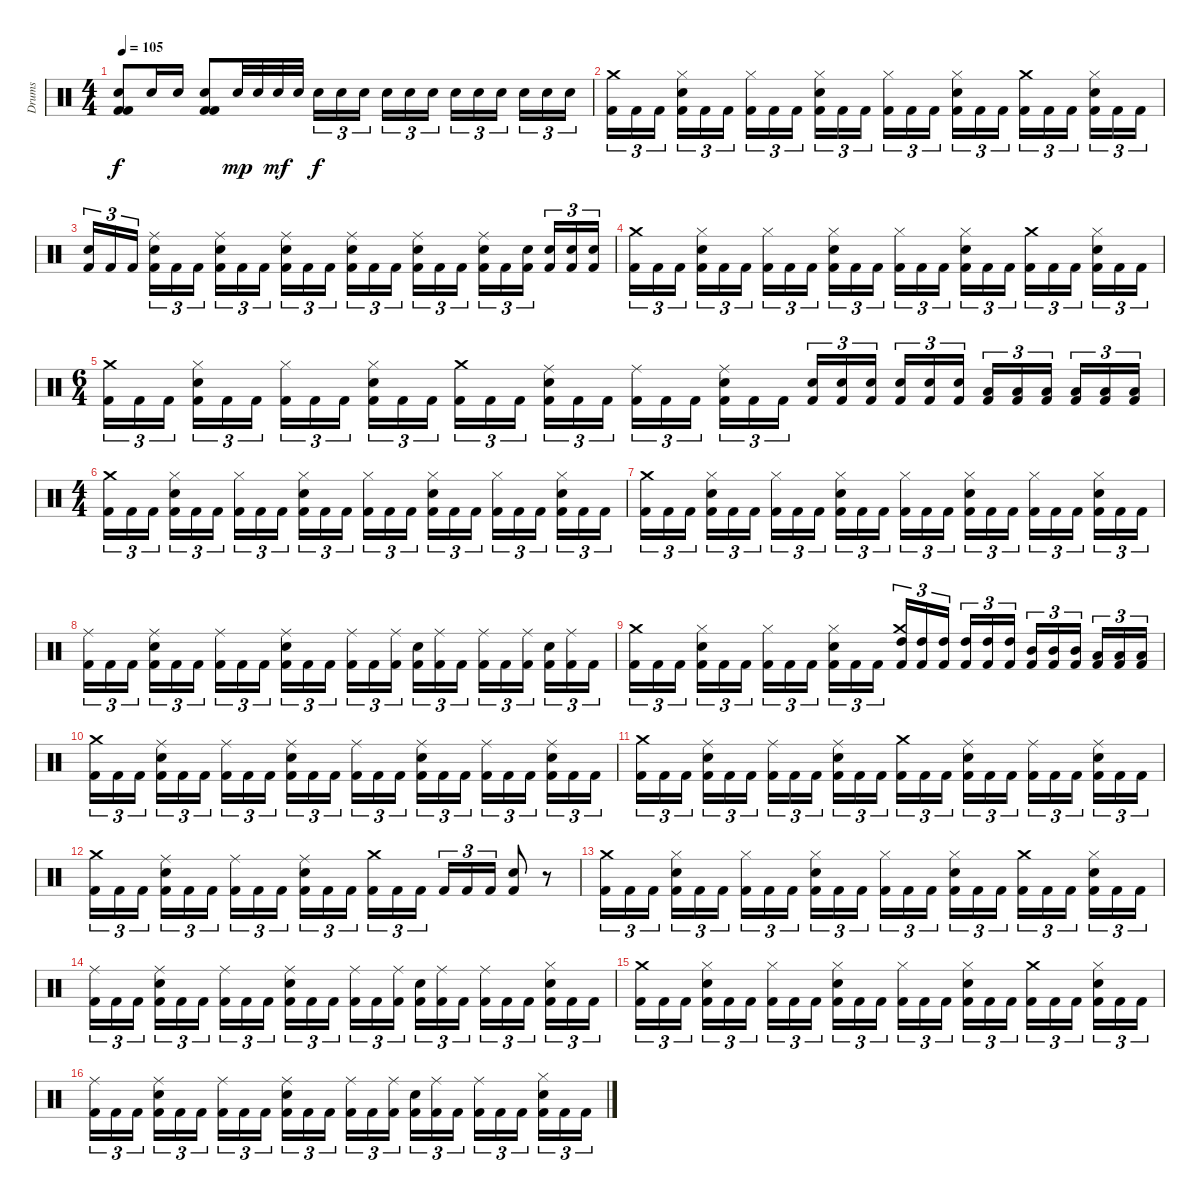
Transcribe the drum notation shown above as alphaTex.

\track ("Drums" "Drums") {instrument percussion}
\staff {score}
\articulation defaults
\ts (4 4)
\tempo 105
\clef neutral
\ks c
("Snare (hit) 2" "Kick (hit) 2" "Kick (hit) 2").8{dy f} "Snare (hit) 2".16 "Snare (hit) 2".16 ("Snare (hit) 2" "Kick (hit) 2" "Kick (hit) 2").8 "Snare (hit) 2".32{dy mp} "Snare (hit) 2".32 "Snare (hit) 2".32{dy mf} "Snare (hit) 2".32 "Electric Snare (hit)".16{tu (3 2) dy f} "Electric Snare (hit)".16{tu (3 2)} "Electric Snare (hit)".16{tu (3 2)} "Electric Snare (hit)".16{tu (3 2)} "Electric Snare (hit)".16{tu (3 2)} "Electric Snare (hit)".16{tu (3 2)} "Electric Snare (hit)".16{tu (3 2)} "Electric Snare (hit)".16{tu (3 2)} "Electric Snare (hit)".16{tu (3 2)} "Electric Snare (hit)".16{tu (3 2)} "Electric Snare (hit)".16{tu (3 2)} "Electric Snare (hit)".16{tu (3 2)} |
("Crash medium (hit)" "Kick (hit) 2").16{tu (3 2)} "Kick (hit) 2".16{tu (3 2)} "Kick (hit) 2".16{tu (3 2)} ("Hi-Hat (closed)" "Electric Snare (hit)" "Kick (hit) 2").16{tu (3 2)} "Kick (hit) 2".16{tu (3 2)} "Kick (hit) 2".16{tu (3 2)} ("Hi-Hat (closed)" "Kick (hit) 2").16{tu (3 2)} "Kick (hit) 2".16{tu (3 2)} "Kick (hit) 2".16{tu (3 2)} ("Hi-Hat (closed)" "Electric Snare (hit)" "Kick (hit) 2").16{tu (3 2)} "Kick (hit) 2".16{tu (3 2)} "Kick (hit) 2".16{tu (3 2)} ("Hi-Hat (closed)" "Kick (hit) 2").16{tu (3 2)} "Kick (hit) 2".16{tu (3 2)} "Kick (hit) 2".16{tu (3 2)} ("Hi-Hat (closed)" "Electric Snare (hit)" "Kick (hit) 2").16{tu (3 2)} "Kick (hit) 2".16{tu (3 2)} "Kick (hit) 2".16{tu (3 2)} ("Crash medium (hit)" "Kick (hit) 2").16{tu (3 2)} "Kick (hit) 2".16{tu (3 2)} "Kick (hit) 2".16{tu (3 2)} ("Hi-Hat (closed)" "Electric Snare (hit)" "Kick (hit) 2").16{tu (3 2)} "Kick (hit) 2".16{tu (3 2)} "Kick (hit) 2".16{tu (3 2)} |
("Electric Snare (hit)" "Kick (hit) 2").16{tu (3 2)} "Kick (hit) 2".16{tu (3 2)} "Kick (hit) 2".16{tu (3 2)} ("Ride (middle)" "Electric Snare (hit)" "Kick (hit) 2").16{tu (3 2)} "Kick (hit) 2".16{tu (3 2)} "Kick (hit) 2".16{tu (3 2)} ("Ride (middle)" "Electric Snare (hit)" "Kick (hit) 2").16{tu (3 2)} "Kick (hit) 2".16{tu (3 2)} "Kick (hit) 2".16{tu (3 2)} ("Ride (middle)" "Electric Snare (hit)" "Kick (hit) 2").16{tu (3 2)} "Kick (hit) 2".16{tu (3 2)} "Kick (hit) 2".16{tu (3 2)} ("Ride (middle)" "Electric Snare (hit)" "Kick (hit) 2").16{tu (3 2)} "Kick (hit) 2".16{tu (3 2)} "Kick (hit) 2".16{tu (3 2)} ("Ride (middle)" "Electric Snare (hit)" "Kick (hit) 2").16{tu (3 2)} "Kick (hit) 2".16{tu (3 2)} "Kick (hit) 2".16{tu (3 2)} ("Ride (middle)" "Electric Snare (hit)" "Kick (hit) 2").16{tu (3 2)} "Kick (hit) 2".16{tu (3 2)} ("Electric Snare (hit)" "Kick (hit) 2").16{tu (3 2)} ("Electric Snare (hit)" "Kick (hit) 2").16{tu (3 2)} ("Electric Snare (hit)" "Kick (hit) 2").16{tu (3 2)} ("Electric Snare (hit)" "Kick (hit) 2").16{tu (3 2)} |
("Crash medium (hit)" "Kick (hit) 2").16{tu (3 2)} "Kick (hit) 2".16{tu (3 2)} "Kick (hit) 2".16{tu (3 2)} ("Hi-Hat (closed)" "Electric Snare (hit)" "Kick (hit) 2").16{tu (3 2)} "Kick (hit) 2".16{tu (3 2)} "Kick (hit) 2".16{tu (3 2)} ("Hi-Hat (closed)" "Kick (hit) 2").16{tu (3 2)} "Kick (hit) 2".16{tu (3 2)} "Kick (hit) 2".16{tu (3 2)} ("Hi-Hat (closed)" "Electric Snare (hit)" "Kick (hit) 2").16{tu (3 2)} "Kick (hit) 2".16{tu (3 2)} "Kick (hit) 2".16{tu (3 2)} ("Hi-Hat (closed)" "Kick (hit) 2").16{tu (3 2)} "Kick (hit) 2".16{tu (3 2)} "Kick (hit) 2".16{tu (3 2)} ("Hi-Hat (closed)" "Electric Snare (hit)" "Kick (hit) 2").16{tu (3 2)} "Kick (hit) 2".16{tu (3 2)} "Kick (hit) 2".16{tu (3 2)} ("Crash medium (hit)" "Kick (hit) 2").16{tu (3 2)} "Kick (hit) 2".16{tu (3 2)} "Kick (hit) 2".16{tu (3 2)} ("Hi-Hat (closed)" "Electric Snare (hit)" "Kick (hit) 2").16{tu (3 2)} "Kick (hit) 2".16{tu (3 2)} "Kick (hit) 2".16{tu (3 2)} |
\ts (6 4)
("Crash medium (hit)" "Kick (hit) 2").16{tu (3 2)} "Kick (hit) 2".16{tu (3 2)} "Kick (hit) 2".16{tu (3 2)} ("Hi-Hat (closed)" "Electric Snare (hit)" "Kick (hit) 2").16{tu (3 2)} "Kick (hit) 2".16{tu (3 2)} "Kick (hit) 2".16{tu (3 2)} ("Hi-Hat (closed)" "Kick (hit) 2").16{tu (3 2)} "Kick (hit) 2".16{tu (3 2)} "Kick (hit) 2".16{tu (3 2)} ("Hi-Hat (closed)" "Electric Snare (hit)" "Kick (hit) 2").16{tu (3 2)} "Kick (hit) 2".16{tu (3 2)} "Kick (hit) 2".16{tu (3 2)} ("Crash medium (hit)" "Kick (hit) 2").16{tu (3 2)} "Kick (hit) 2".16{tu (3 2)} "Kick (hit) 2".16{tu (3 2)} ("Ride (middle)" "Electric Snare (hit)" "Kick (hit) 2").16{tu (3 2)} "Kick (hit) 2".16{tu (3 2)} "Kick (hit) 2".16{tu (3 2)} ("Ride (middle)" "Kick (hit) 2").16{tu (3 2)} "Kick (hit) 2".16{tu (3 2)} "Kick (hit) 2".16{tu (3 2)} ("Ride (middle)" "Electric Snare (hit)" "Kick (hit) 2").16{tu (3 2)} "Kick (hit) 2".16{tu (3 2)} "Kick (hit) 2".16{tu (3 2)} ("Electric Snare (hit)" "Kick (hit) 2").16{tu (3 2)} ("Electric Snare (hit)" "Kick (hit) 2").16{tu (3 2)} ("Electric Snare (hit)" "Kick (hit) 2").16{tu (3 2)} ("Electric Snare (hit)" "Kick (hit) 2").16{tu (3 2)} ("Electric Snare (hit)" "Kick (hit) 2").16{tu (3 2)} ("Electric Snare (hit)" "Kick (hit) 2").16{tu (3 2)} ("Low Tom (hit)" "Kick (hit) 2").16{tu (3 2)} ("Low Tom (hit)" "Kick (hit) 2").16{tu (3 2)} ("Low Tom (hit)" "Kick (hit) 2").16{tu (3 2)} ("Low Tom (hit)" "Kick (hit) 2").16{tu (3 2)} ("Low Tom (hit)" "Kick (hit) 2").16{tu (3 2)} ("Low Tom (hit)" "Kick (hit) 2").16{tu (3 2)} |
\ts (4 4)
("Crash medium (hit)" "Kick (hit) 2").16{tu (3 2)} "Kick (hit) 2".16{tu (3 2)} "Kick (hit) 2".16{tu (3 2)} ("Hi-Hat (closed)" "Electric Snare (hit)" "Kick (hit) 2").16{tu (3 2)} "Kick (hit) 2".16{tu (3 2)} "Kick (hit) 2".16{tu (3 2)} ("Hi-Hat (closed)" "Kick (hit) 2").16{tu (3 2)} "Kick (hit) 2".16{tu (3 2)} "Kick (hit) 2".16{tu (3 2)} ("Hi-Hat (closed)" "Electric Snare (hit)" "Kick (hit) 2").16{tu (3 2)} "Kick (hit) 2".16{tu (3 2)} "Kick (hit) 2".16{tu (3 2)} ("Hi-Hat (closed)" "Kick (hit) 2").16{tu (3 2)} "Kick (hit) 2".16{tu (3 2)} "Kick (hit) 2".16{tu (3 2)} ("Hi-Hat (closed)" "Electric Snare (hit)" "Kick (hit) 2").16{tu (3 2)} "Kick (hit) 2".16{tu (3 2)} "Kick (hit) 2".16{tu (3 2)} ("Hi-Hat (closed)" "Kick (hit) 2").16{tu (3 2)} "Kick (hit) 2".16{tu (3 2)} "Kick (hit) 2".16{tu (3 2)} ("Hi-Hat (closed)" "Electric Snare (hit)" "Kick (hit) 2").16{tu (3 2)} "Kick (hit) 2".16{tu (3 2)} "Kick (hit) 2".16{tu (3 2)} |
("Crash medium (hit)" "Kick (hit) 2").16{tu (3 2)} "Kick (hit) 2".16{tu (3 2)} "Kick (hit) 2".16{tu (3 2)} ("Hi-Hat (closed)" "Electric Snare (hit)" "Kick (hit) 2").16{tu (3 2)} "Kick (hit) 2".16{tu (3 2)} "Kick (hit) 2".16{tu (3 2)} ("Hi-Hat (closed)" "Kick (hit) 2").16{tu (3 2)} "Kick (hit) 2".16{tu (3 2)} "Kick (hit) 2".16{tu (3 2)} ("Hi-Hat (closed)" "Electric Snare (hit)" "Kick (hit) 2").16{tu (3 2)} "Kick (hit) 2".16{tu (3 2)} "Kick (hit) 2".16{tu (3 2)} ("Hi-Hat (closed)" "Kick (hit) 2").16{tu (3 2)} "Kick (hit) 2".16{tu (3 2)} "Kick (hit) 2".16{tu (3 2)} ("Hi-Hat (closed)" "Electric Snare (hit)" "Kick (hit) 2").16{tu (3 2)} "Kick (hit) 2".16{tu (3 2)} "Kick (hit) 2".16{tu (3 2)} ("Hi-Hat (closed)" "Kick (hit) 2").16{tu (3 2)} "Kick (hit) 2".16{tu (3 2)} "Kick (hit) 2".16{tu (3 2)} ("Hi-Hat (closed)" "Electric Snare (hit)" "Kick (hit) 2").16{tu (3 2)} "Kick (hit) 2".16{tu (3 2)} "Kick (hit) 2".16{tu (3 2)} |
("Ride (middle)" "Kick (hit) 2").16{tu (3 2)} "Kick (hit) 2".16{tu (3 2)} "Kick (hit) 2".16{tu (3 2)} ("Ride (middle)" "Electric Snare (hit)" "Kick (hit) 2").16{tu (3 2)} "Kick (hit) 2".16{tu (3 2)} "Kick (hit) 2".16{tu (3 2)} ("Ride (middle)" "Kick (hit) 2").16{tu (3 2)} "Kick (hit) 2".16{tu (3 2)} "Kick (hit) 2".16{tu (3 2)} ("Ride (middle)" "Electric Snare (hit)" "Kick (hit) 2").16{tu (3 2)} "Kick (hit) 2".16{tu (3 2)} "Kick (hit) 2".16{tu (3 2)} ("Ride (middle)" "Kick (hit) 2").16{tu (3 2)} "Kick (hit) 2".16{tu (3 2)} ("Ride (middle)" "Kick (hit) 2").16{tu (3 2)} ("Electric Snare (hit)" "Kick (hit) 2").16{tu (3 2)} ("Ride (middle)" "Kick (hit) 2").16{tu (3 2)} "Kick (hit) 2".16{tu (3 2)} ("Ride (middle)" "Kick (hit) 2").16{tu (3 2)} "Kick (hit) 2".16{tu (3 2)} ("Ride (middle)" "Kick (hit) 2").16{tu (3 2)} ("Electric Snare (hit)" "Kick (hit) 2").16{tu (3 2)} ("Ride (middle)" "Kick (hit) 2").16{tu (3 2)} "Kick (hit) 2".16{tu (3 2)} |
("Crash medium (hit)" "Kick (hit) 2").16{tu (3 2)} "Kick (hit) 2".16{tu (3 2)} "Kick (hit) 2".16{tu (3 2)} ("Hi-Hat (closed)" "Electric Snare (hit)" "Kick (hit) 2").16{tu (3 2)} "Kick (hit) 2".16{tu (3 2)} "Kick (hit) 2".16{tu (3 2)} ("Hi-Hat (closed)" "Kick (hit) 2").16{tu (3 2)} "Kick (hit) 2".16{tu (3 2)} "Kick (hit) 2".16{tu (3 2)} ("Hi-Hat (closed)" "Electric Snare (hit)" "Kick (hit) 2").16{tu (3 2)} "Kick (hit) 2".16{tu (3 2)} "Kick (hit) 2".16{tu (3 2)} ("Crash medium (hit)" "High Tom (hit)" "Kick (hit) 2").16{tu (3 2)} ("High Tom (hit)" "Kick (hit) 2").16{tu (3 2)} ("High Tom (hit)" "Kick (hit) 2").16{tu (3 2)} ("High Tom (hit)" "Kick (hit) 2").16{tu (3 2)} ("High Tom (hit)" "Kick (hit) 2").16{tu (3 2)} ("High Tom (hit)" "Kick (hit) 2").16{tu (3 2)} ("Mid Tom (hit)" "Kick (hit) 2").16{tu (3 2)} ("Mid Tom (hit)" "Kick (hit) 2").16{tu (3 2)} ("Mid Tom (hit)" "Kick (hit) 2").16{tu (3 2)} ("Low Tom (hit)" "Kick (hit) 2").16{tu (3 2)} ("Low Tom (hit)" "Kick (hit) 2").16{tu (3 2)} ("Low Tom (hit)" "Kick (hit) 2").16{tu (3 2)} |
("Crash medium (hit)" "Kick (hit) 2").16{tu (3 2)} "Kick (hit) 2".16{tu (3 2)} "Kick (hit) 2".16{tu (3 2)} ("Ride (middle)" "Electric Snare (hit)" "Kick (hit) 2").16{tu (3 2)} "Kick (hit) 2".16{tu (3 2)} "Kick (hit) 2".16{tu (3 2)} ("Ride (middle)" "Kick (hit) 2").16{tu (3 2)} "Kick (hit) 2".16{tu (3 2)} "Kick (hit) 2".16{tu (3 2)} ("Ride (middle)" "Electric Snare (hit)" "Kick (hit) 2").16{tu (3 2)} "Kick (hit) 2".16{tu (3 2)} "Kick (hit) 2".16{tu (3 2)} ("Ride (middle)" "Kick (hit) 2").16{tu (3 2)} "Kick (hit) 2".16{tu (3 2)} "Kick (hit) 2".16{tu (3 2)} ("Ride (middle)" "Electric Snare (hit)" "Kick (hit) 2").16{tu (3 2)} "Kick (hit) 2".16{tu (3 2)} "Kick (hit) 2".16{tu (3 2)} ("Ride (middle)" "Kick (hit) 2").16{tu (3 2)} "Kick (hit) 2".16{tu (3 2)} "Kick (hit) 2".16{tu (3 2)} ("Ride (middle)" "Electric Snare (hit)" "Kick (hit) 2").16{tu (3 2)} "Kick (hit) 2".16{tu (3 2)} "Kick (hit) 2".16{tu (3 2)} |
("Crash medium (hit)" "Kick (hit) 2").16{tu (3 2)} "Kick (hit) 2".16{tu (3 2)} "Kick (hit) 2".16{tu (3 2)} ("Ride (middle)" "Electric Snare (hit)" "Kick (hit) 2").16{tu (3 2)} "Kick (hit) 2".16{tu (3 2)} "Kick (hit) 2".16{tu (3 2)} ("Ride (middle)" "Kick (hit) 2").16{tu (3 2)} "Kick (hit) 2".16{tu (3 2)} "Kick (hit) 2".16{tu (3 2)} ("Ride (middle)" "Electric Snare (hit)" "Kick (hit) 2").16{tu (3 2)} "Kick (hit) 2".16{tu (3 2)} "Kick (hit) 2".16{tu (3 2)} ("Crash medium (hit)" "Kick (hit) 2").16{tu (3 2)} "Kick (hit) 2".16{tu (3 2)} "Kick (hit) 2".16{tu (3 2)} ("Ride (middle)" "Electric Snare (hit)" "Kick (hit) 2").16{tu (3 2)} "Kick (hit) 2".16{tu (3 2)} "Kick (hit) 2".16{tu (3 2)} ("Ride (middle)" "Kick (hit) 2").16{tu (3 2)} "Kick (hit) 2".16{tu (3 2)} "Kick (hit) 2".16{tu (3 2)} ("Ride (middle)" "Electric Snare (hit)" "Kick (hit) 2").16{tu (3 2)} "Kick (hit) 2".16{tu (3 2)} "Kick (hit) 2".16{tu (3 2)} |
("Crash medium (hit)" "Kick (hit) 2").16{tu (3 2)} "Kick (hit) 2".16{tu (3 2)} "Kick (hit) 2".16{tu (3 2)} ("Ride (middle)" "Electric Snare (hit)" "Kick (hit) 2").16{tu (3 2)} "Kick (hit) 2".16{tu (3 2)} "Kick (hit) 2".16{tu (3 2)} ("Ride (middle)" "Kick (hit) 2").16{tu (3 2)} "Kick (hit) 2".16{tu (3 2)} "Kick (hit) 2".16{tu (3 2)} ("Ride (middle)" "Electric Snare (hit)" "Kick (hit) 2").16{tu (3 2)} "Kick (hit) 2".16{tu (3 2)} "Kick (hit) 2".16{tu (3 2)} ("Crash medium (hit)" "Kick (hit) 2").16{tu (3 2)} "Kick (hit) 2".16{tu (3 2)} "Kick (hit) 2".16{tu (3 2)} "Kick (hit) 2".16{tu (3 2)} "Kick (hit) 2".16{tu (3 2)} "Kick (hit) 2".16{tu (3 2)} ("Electric Snare (hit)" "Kick (hit) 2").8 r.8 |
("Crash medium (hit)" "Kick (hit) 2").16{tu (3 2)} "Kick (hit) 2".16{tu (3 2)} "Kick (hit) 2".16{tu (3 2)} ("Hi-Hat (closed)" "Electric Snare (hit)" "Kick (hit) 2").16{tu (3 2)} "Kick (hit) 2".16{tu (3 2)} "Kick (hit) 2".16{tu (3 2)} ("Hi-Hat (closed)" "Kick (hit) 2").16{tu (3 2)} "Kick (hit) 2".16{tu (3 2)} "Kick (hit) 2".16{tu (3 2)} ("Hi-Hat (closed)" "Electric Snare (hit)" "Kick (hit) 2").16{tu (3 2)} "Kick (hit) 2".16{tu (3 2)} "Kick (hit) 2".16{tu (3 2)} ("Hi-Hat (closed)" "Kick (hit) 2").16{tu (3 2)} "Kick (hit) 2".16{tu (3 2)} "Kick (hit) 2".16{tu (3 2)} ("Hi-Hat (closed)" "Electric Snare (hit)" "Kick (hit) 2").16{tu (3 2)} "Kick (hit) 2".16{tu (3 2)} "Kick (hit) 2".16{tu (3 2)} ("Crash medium (hit)" "Kick (hit) 2").16{tu (3 2)} "Kick (hit) 2".16{tu (3 2)} "Kick (hit) 2".16{tu (3 2)} ("Hi-Hat (closed)" "Electric Snare (hit)" "Kick (hit) 2").16{tu (3 2)} "Kick (hit) 2".16{tu (3 2)} "Kick (hit) 2".16{tu (3 2)} |
("Ride (middle)" "Kick (hit) 2").16{tu (3 2)} "Kick (hit) 2".16{tu (3 2)} "Kick (hit) 2".16{tu (3 2)} ("Ride (middle)" "Electric Snare (hit)" "Kick (hit) 2").16{tu (3 2)} "Kick (hit) 2".16{tu (3 2)} "Kick (hit) 2".16{tu (3 2)} ("Ride (middle)" "Kick (hit) 2").16{tu (3 2)} "Kick (hit) 2".16{tu (3 2)} "Kick (hit) 2".16{tu (3 2)} ("Ride (middle)" "Electric Snare (hit)" "Kick (hit) 2").16{tu (3 2)} "Kick (hit) 2".16{tu (3 2)} "Kick (hit) 2".16{tu (3 2)} ("Ride (middle)" "Kick (hit) 2").16{tu (3 2)} "Kick (hit) 2".16{tu (3 2)} ("Ride (middle)" "Kick (hit) 2").16{tu (3 2)} ("Electric Snare (hit)" "Kick (hit) 2").16{tu (3 2)} ("Ride (middle)" "Kick (hit) 2").16{tu (3 2)} "Kick (hit) 2".16{tu (3 2)} ("Ride (middle)" "Kick (hit) 2").16{tu (3 2)} "Kick (hit) 2".16{tu (3 2)} "Kick (hit) 2".16{tu (3 2)} ("Hi-Hat (closed)" "Electric Snare (hit)" "Kick (hit) 2").16{tu (3 2)} "Kick (hit) 2".16{tu (3 2)} "Kick (hit) 2".16{tu (3 2)} |
("Crash medium (hit)" "Kick (hit) 2").16{tu (3 2)} "Kick (hit) 2".16{tu (3 2)} "Kick (hit) 2".16{tu (3 2)} ("Hi-Hat (closed)" "Electric Snare (hit)" "Kick (hit) 2").16{tu (3 2)} "Kick (hit) 2".16{tu (3 2)} "Kick (hit) 2".16{tu (3 2)} ("Hi-Hat (closed)" "Kick (hit) 2").16{tu (3 2)} "Kick (hit) 2".16{tu (3 2)} "Kick (hit) 2".16{tu (3 2)} ("Hi-Hat (closed)" "Electric Snare (hit)" "Kick (hit) 2").16{tu (3 2)} "Kick (hit) 2".16{tu (3 2)} "Kick (hit) 2".16{tu (3 2)} ("Hi-Hat (closed)" "Kick (hit) 2").16{tu (3 2)} "Kick (hit) 2".16{tu (3 2)} "Kick (hit) 2".16{tu (3 2)} ("Hi-Hat (closed)" "Electric Snare (hit)" "Kick (hit) 2").16{tu (3 2)} "Kick (hit) 2".16{tu (3 2)} "Kick (hit) 2".16{tu (3 2)} ("Crash medium (hit)" "Kick (hit) 2").16{tu (3 2)} "Kick (hit) 2".16{tu (3 2)} "Kick (hit) 2".16{tu (3 2)} ("Hi-Hat (closed)" "Electric Snare (hit)" "Kick (hit) 2").16{tu (3 2)} "Kick (hit) 2".16{tu (3 2)} "Kick (hit) 2".16{tu (3 2)} |
("Ride (middle)" "Kick (hit) 2").16{tu (3 2)} "Kick (hit) 2".16{tu (3 2)} "Kick (hit) 2".16{tu (3 2)} ("Ride (middle)" "Electric Snare (hit)" "Kick (hit) 2").16{tu (3 2)} "Kick (hit) 2".16{tu (3 2)} "Kick (hit) 2".16{tu (3 2)} ("Ride (middle)" "Kick (hit) 2").16{tu (3 2)} "Kick (hit) 2".16{tu (3 2)} "Kick (hit) 2".16{tu (3 2)} ("Ride (middle)" "Electric Snare (hit)" "Kick (hit) 2").16{tu (3 2)} "Kick (hit) 2".16{tu (3 2)} "Kick (hit) 2".16{tu (3 2)} ("Ride (middle)" "Kick (hit) 2").16{tu (3 2)} "Kick (hit) 2".16{tu (3 2)} ("Ride (middle)" "Kick (hit) 2").16{tu (3 2)} ("Electric Snare (hit)" "Kick (hit) 2").16{tu (3 2)} ("Ride (middle)" "Kick (hit) 2").16{tu (3 2)} "Kick (hit) 2".16{tu (3 2)} ("Ride (middle)" "Kick (hit) 2").16{tu (3 2)} "Kick (hit) 2".16{tu (3 2)} "Kick (hit) 2".16{tu (3 2)} ("Hi-Hat (closed)" "Electric Snare (hit)" "Kick (hit) 2").16{tu (3 2)} "Kick (hit) 2".16{tu (3 2)} "Kick (hit) 2".16{tu (3 2)}
